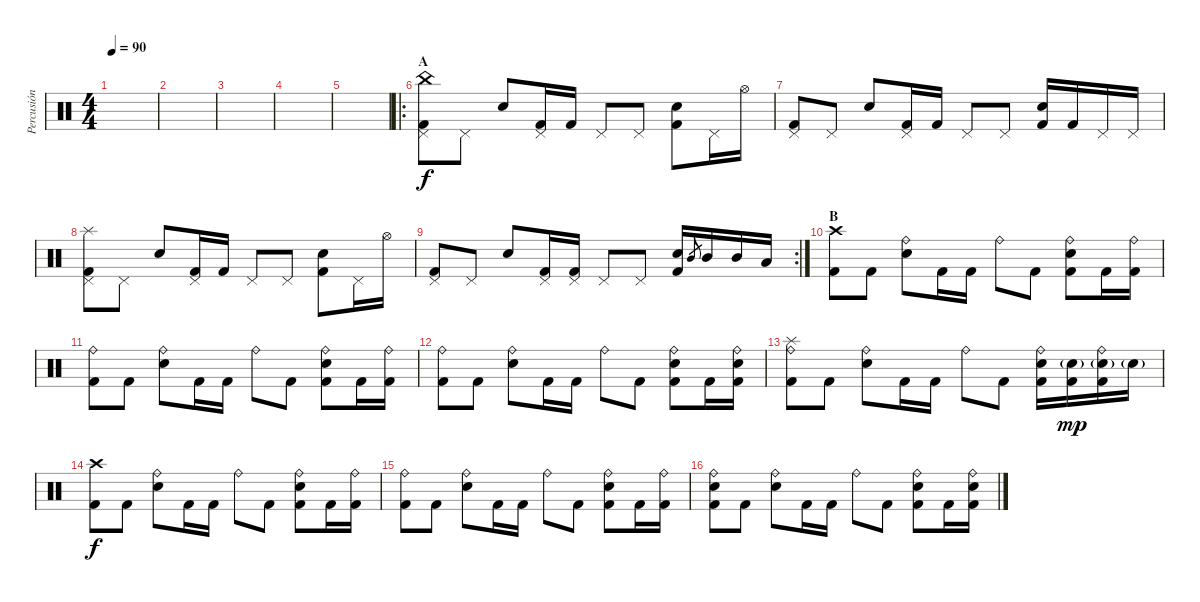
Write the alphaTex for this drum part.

\track ("Percusión" "Percusión") {instrument percussion}
\staff {score}
\articulation defaults
\ts (4 4)
\tempo 90
\clef neutral
\ks c
|
|
|
|
|
\ro
\section ("" "A")
("China (hit)" "Pedal Hi-Hat (hit)" "Kick (hit) 2").8 "Pedal Hi-Hat (hit)".8 "Electric Snare (hit)".8 ("Pedal Hi-Hat (hit)" "Kick (hit) 2").16 "Kick (hit) 2".16 "Pedal Hi-Hat (hit)".8 "Pedal Hi-Hat (hit)".8 ("Electric Snare (hit)" "Kick (hit) 2").8 "Pedal Hi-Hat (hit)".16 "Hi-Hat (open)".16 |
("Pedal Hi-Hat (hit)" "Kick (hit) 2").8 "Pedal Hi-Hat (hit)".8 "Electric Snare (hit)".8 ("Pedal Hi-Hat (hit)" "Kick (hit) 2").16 "Kick (hit) 2".16 "Pedal Hi-Hat (hit)".8 "Pedal Hi-Hat (hit)".8 ("Electric Snare (hit)" "Kick (hit) 2").16 "Kick (hit) 2".16 "Pedal Hi-Hat (hit)".16 "Pedal Hi-Hat (hit)".16 |
("Splash (hit)" "Pedal Hi-Hat (hit)" "Kick (hit) 2").8 "Pedal Hi-Hat (hit)".8 "Electric Snare (hit)".8 ("Pedal Hi-Hat (hit)" "Kick (hit) 2").16 "Kick (hit) 2".16 "Pedal Hi-Hat (hit)".8 "Pedal Hi-Hat (hit)".8 ("Electric Snare (hit)" "Kick (hit) 2").8 "Pedal Hi-Hat (hit)".16 "Hi-Hat (open)".16 |
\rc 2
("Pedal Hi-Hat (hit)" "Kick (hit) 2").8 "Pedal Hi-Hat (hit)".8 "Electric Snare (hit)".8 ("Pedal Hi-Hat (hit)" "Kick (hit) 2").16 ("Pedal Hi-Hat (hit)" "Kick (hit) 2").16 "Pedal Hi-Hat (hit)".8 "Pedal Hi-Hat (hit)".8 ("Electric Snare (hit)" "Kick (hit) 2").16 "Mid Tom (hit)".8{gr} "Mid Tom (hit)".16 "Mid Tom (hit)".16 "Low Tom (hit)".16 |
\section ("" "B")
("Crash high (hit)" "Kick (hit) 2").8 "Kick (hit) 2".8 ("Ride (bell)" "Electric Snare (hit)").8 "Kick (hit) 2".16 "Kick (hit) 2".16 "Ride (bell)".8 "Kick (hit) 2".8 ("Ride (bell)" "Electric Snare (hit)" "Kick (hit) 2").8 "Kick (hit) 2".16 ("Ride (bell)" "Kick (hit) 2").16 |
("Ride (bell)" "Kick (hit) 2").8 "Kick (hit) 2".8 ("Ride (bell)" "Electric Snare (hit)").8 "Kick (hit) 2".16 "Kick (hit) 2".16 "Ride (bell)".8 "Kick (hit) 2".8 ("Ride (bell)" "Electric Snare (hit)" "Kick (hit) 2").8 "Kick (hit) 2".16 ("Ride (bell)" "Kick (hit) 2").16 |
("Ride (bell)" "Kick (hit) 2").8 "Kick (hit) 2".8 ("Ride (bell)" "Electric Snare (hit)").8 "Kick (hit) 2".16 "Kick (hit) 2".16 "Ride (bell)".8 "Kick (hit) 2".8 ("Ride (bell)" "Electric Snare (hit)" "Kick (hit) 2").8 "Kick (hit) 2".16 ("Ride (bell)" "Electric Snare (hit)" "Kick (hit) 2").16 |
("Splash (hit)" "Ride (bell)" "Kick (hit) 2").8 "Kick (hit) 2".8 ("Ride (bell)" "Electric Snare (hit)").8 "Kick (hit) 2".16 "Kick (hit) 2".16 "Ride (bell)".8 "Kick (hit) 2".8 ("Ride (bell)" "Electric Snare (hit)" "Kick (hit) 2").16 ("Electric Snare (hit)"{g} "Kick (hit) 2").16{dy mp} ("Ride (bell)" "Electric Snare (hit)"{g} "Kick (hit) 2").16 "Electric Snare (hit)"{g}.16 |
("Crash high (hit)" "Kick (hit) 2").8{dy f} "Kick (hit) 2".8 ("Ride (bell)" "Electric Snare (hit)").8 "Kick (hit) 2".16 "Kick (hit) 2".16 "Ride (bell)".8 "Kick (hit) 2".8 ("Ride (bell)" "Electric Snare (hit)" "Kick (hit) 2").8 "Kick (hit) 2".16 ("Ride (bell)" "Kick (hit) 2").16 |
("Ride (bell)" "Kick (hit) 2").8 "Kick (hit) 2".8 ("Ride (bell)" "Electric Snare (hit)").8 "Kick (hit) 2".16 "Kick (hit) 2".16 "Ride (bell)".8 "Kick (hit) 2".8 ("Ride (bell)" "Electric Snare (hit)" "Kick (hit) 2").8 "Kick (hit) 2".16 ("Ride (bell)" "Kick (hit) 2").16 |
("Ride (bell)" "Electric Snare (hit)" "Kick (hit) 2").8 "Kick (hit) 2".8 ("Ride (bell)" "Electric Snare (hit)").8 "Kick (hit) 2".16 "Kick (hit) 2".16 "Ride (bell)".8 "Kick (hit) 2".8 ("Ride (bell)" "Electric Snare (hit)" "Kick (hit) 2").8 "Kick (hit) 2".16 ("Ride (bell)" "Electric Snare (hit)" "Kick (hit) 2").16
